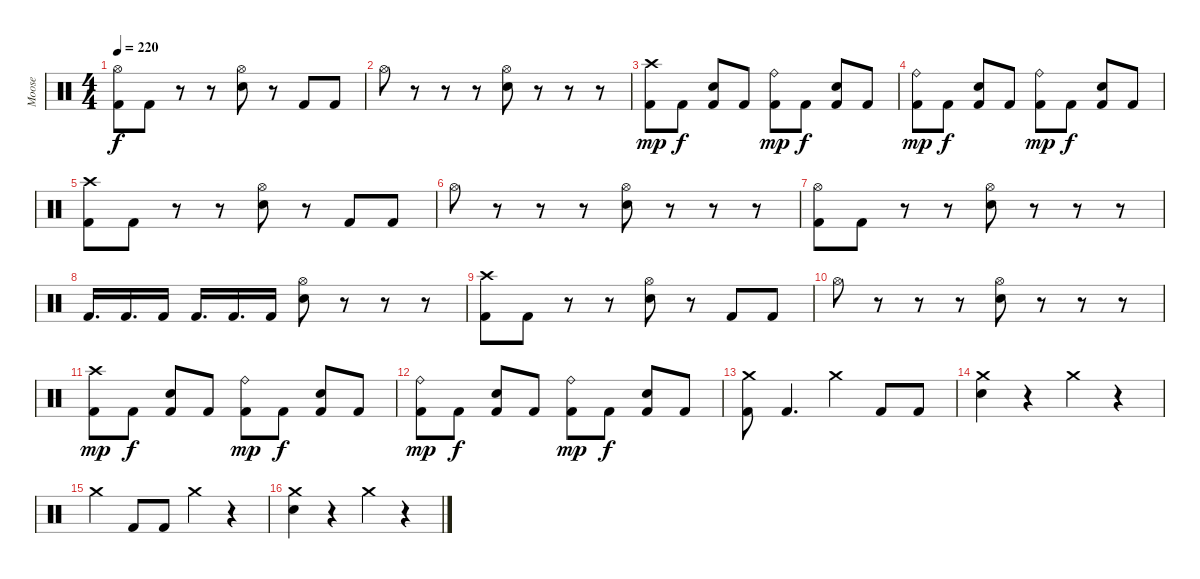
\track ("Moose" "Moose") {instrument percussion}
\staff {score}
\articulation defaults
\ts (4 4)
\tempo 220
\clef neutral
\ks c
("Kick (hit) 2" "Hi-Hat (open)").8{dy f} "Kick (hit) 2".8 r.8 r.8 ("Snare (hit) 2" "Hi-Hat (open)").8 r.8 "Kick (hit) 2".8 "Kick (hit) 2".8 |
"Hi-Hat (open)".8 r.8 r.8 r.8 ("Snare (hit) 2" "Hi-Hat (open)").8 r.8 r.8 r.8 |
("Kick (hit) 2" "Crash high (hit)").8{dy mp} "Kick (hit) 2".8{dy f} ("Kick (hit) 2" "Snare (hit) 2").8 "Kick (hit) 2".8 ("Kick (hit) 2" "Ride (bell)").8{dy mp} "Kick (hit) 2".8{dy f} ("Kick (hit) 2" "Snare (hit) 2").8 "Kick (hit) 2".8 |
("Kick (hit) 2" "Ride (bell)").8{dy mp} "Kick (hit) 2".8{dy f} ("Kick (hit) 2" "Snare (hit) 2").8 "Kick (hit) 2".8 ("Kick (hit) 2" "Ride (bell)").8{dy mp} "Kick (hit) 2".8{dy f} ("Kick (hit) 2" "Snare (hit) 2").8 "Kick (hit) 2".8 |
("Kick (hit) 2" "Crash high (hit)").8 "Kick (hit) 2".8 r.8 r.8 ("Snare (hit) 2" "Hi-Hat (open)").8 r.8 "Kick (hit) 2".8 "Kick (hit) 2".8 |
"Hi-Hat (open)".8 r.8 r.8 r.8 ("Snare (hit) 2" "Hi-Hat (open)").8 r.8 r.8 r.8 |
("Kick (hit) 2" "Hi-Hat (open)").8 "Kick (hit) 2".8 r.8 r.8 ("Snare (hit) 2" "Hi-Hat (open)").8 r.8 r.8 r.8 |
"Kick (hit) 2".16{d} "Kick (hit) 2".16{d} "Kick (hit) 2".16 "Kick (hit) 2".16{d} "Kick (hit) 2".16{d} "Kick (hit) 2".16 ("Snare (hit) 2" "Hi-Hat (open)").8 r.8 r.8 r.8 |
("Kick (hit) 2" "Crash high (hit)").8 "Kick (hit) 2".8 r.8 r.8 ("Snare (hit) 2" "Hi-Hat (open)").8 r.8 "Kick (hit) 2".8 "Kick (hit) 2".8 |
"Hi-Hat (open)".8 r.8 r.8 r.8 ("Snare (hit) 2" "Hi-Hat (open)").8 r.8 r.8 r.8 |
("Kick (hit) 2" "Crash high (hit)").8{dy mp} "Kick (hit) 2".8{dy f} ("Kick (hit) 2" "Snare (hit) 2").8 "Kick (hit) 2".8 ("Kick (hit) 2" "Ride (bell)").8{dy mp} "Kick (hit) 2".8{dy f} ("Kick (hit) 2" "Snare (hit) 2").8 "Kick (hit) 2".8 |
("Kick (hit) 2" "Ride (bell)").8{dy mp} "Kick (hit) 2".8{dy f} ("Kick (hit) 2" "Snare (hit) 2").8 "Kick (hit) 2".8 ("Kick (hit) 2" "Ride (bell)").8{dy mp} "Kick (hit) 2".8{dy f} ("Kick (hit) 2" "Snare (hit) 2").8 "Kick (hit) 2".8 |
("Kick (hit) 2" "Crash medium (hit)").8 "Kick (hit) 2".4{d} "Crash medium (hit)".4 "Kick (hit) 2".8 "Kick (hit) 2".8 |
("Snare (hit) 2" "Crash medium (hit)").4 r.4 "Crash medium (hit)".4 r.4 |
"Crash medium (hit)".4 "Kick (hit) 2".8 "Kick (hit) 2".8 "Crash medium (hit)".4 r.4 |
("Snare (hit) 2" "Crash medium (hit)").4 r.4 "Crash medium (hit)".4 r.4
